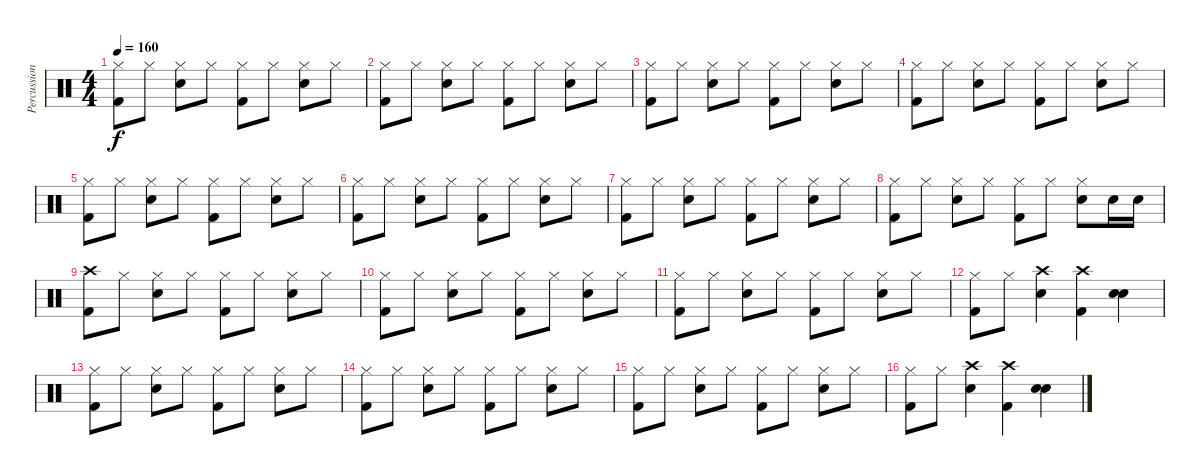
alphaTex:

\track ("Percussion" "Percussion") {instrument percussion}
\staff {score}
\articulation defaults
\ts (4 4)
\tempo 160
\clef neutral
\ks c
("Hi-Hat (closed)" "Kick (hit) 2").8{dy f} "Hi-Hat (closed)".8 ("Hi-Hat (closed)" "Snare (hit) 2").8 "Hi-Hat (closed)".8 ("Hi-Hat (closed)" "Kick (hit) 2").8 "Hi-Hat (closed)".8 ("Hi-Hat (closed)" "Snare (hit) 2").8 "Hi-Hat (closed)".8 |
("Hi-Hat (closed)" "Kick (hit) 2").8 "Hi-Hat (closed)".8 ("Hi-Hat (closed)" "Snare (hit) 2").8 "Hi-Hat (closed)".8 ("Hi-Hat (closed)" "Kick (hit) 2").8 "Hi-Hat (closed)".8 ("Hi-Hat (closed)" "Snare (hit) 2").8 "Hi-Hat (closed)".8 |
("Hi-Hat (closed)" "Kick (hit) 2").8 "Hi-Hat (closed)".8 ("Hi-Hat (closed)" "Snare (hit) 2").8 "Hi-Hat (closed)".8 ("Hi-Hat (closed)" "Kick (hit) 2").8 "Hi-Hat (closed)".8 ("Hi-Hat (closed)" "Snare (hit) 2").8 "Hi-Hat (closed)".8 |
("Hi-Hat (closed)" "Kick (hit) 2").8 "Hi-Hat (closed)".8 ("Hi-Hat (closed)" "Snare (hit) 2").8 "Hi-Hat (closed)".8 ("Hi-Hat (closed)" "Kick (hit) 2").8 "Hi-Hat (closed)".8 ("Hi-Hat (closed)" "Snare (hit) 2").8 "Hi-Hat (closed)".8 |
("Hi-Hat (closed)" "Kick (hit) 2").8 "Hi-Hat (closed)".8 ("Hi-Hat (closed)" "Snare (hit) 2").8 "Hi-Hat (closed)".8 ("Hi-Hat (closed)" "Kick (hit) 2").8 "Hi-Hat (closed)".8 ("Hi-Hat (closed)" "Snare (hit) 2").8 "Hi-Hat (closed)".8 |
("Hi-Hat (closed)" "Kick (hit) 2").8 "Hi-Hat (closed)".8 ("Hi-Hat (closed)" "Snare (hit) 2").8 "Hi-Hat (closed)".8 ("Hi-Hat (closed)" "Kick (hit) 2").8 "Hi-Hat (closed)".8 ("Hi-Hat (closed)" "Snare (hit) 2").8 "Hi-Hat (closed)".8 |
("Hi-Hat (closed)" "Kick (hit) 2").8 "Hi-Hat (closed)".8 ("Hi-Hat (closed)" "Snare (hit) 2").8 "Hi-Hat (closed)".8 ("Hi-Hat (closed)" "Kick (hit) 2").8 "Hi-Hat (closed)".8 ("Hi-Hat (closed)" "Snare (hit) 2").8 "Hi-Hat (closed)".8 |
("Hi-Hat (closed)" "Kick (hit) 2").8 "Hi-Hat (closed)".8 ("Hi-Hat (closed)" "Snare (hit) 2").8 "Hi-Hat (closed)".8 ("Hi-Hat (closed)" "Kick (hit) 2").8 "Hi-Hat (closed)".8 ("Hi-Hat (closed)" "Snare (hit) 2").8 "Snare (hit) 2".16 "Snare (hit) 2".16 |
("Crash high (hit)" "Kick (hit) 2").8 "Hi-Hat (closed)".8 ("Hi-Hat (closed)" "Snare (hit) 2").8 "Hi-Hat (closed)".8 ("Hi-Hat (closed)" "Kick (hit) 2").8 "Hi-Hat (closed)".8 ("Hi-Hat (closed)" "Snare (hit) 2").8 "Hi-Hat (closed)".8 |
("Hi-Hat (closed)" "Kick (hit) 2").8 "Hi-Hat (closed)".8 ("Hi-Hat (closed)" "Snare (hit) 2").8 "Hi-Hat (closed)".8 ("Hi-Hat (closed)" "Kick (hit) 2").8 "Hi-Hat (closed)".8 ("Hi-Hat (closed)" "Snare (hit) 2").8 "Hi-Hat (closed)".8 |
("Hi-Hat (closed)" "Kick (hit) 2").8 "Hi-Hat (closed)".8 ("Hi-Hat (closed)" "Snare (hit) 2").8 "Hi-Hat (closed)".8 ("Hi-Hat (closed)" "Kick (hit) 2").8 "Hi-Hat (closed)".8 ("Hi-Hat (closed)" "Snare (hit) 2").8 "Hi-Hat (closed)".8 |
("Hi-Hat (closed)" "Kick (hit) 2").8 "Hi-Hat (closed)".8 ("Crash high (hit)" "Snare (hit) 2").4 ("Crash high (hit)" "Kick (hit) 2").4 ("Snare (hit) 2" "Snare (hit) 2").4 |
("Hi-Hat (closed)" "Kick (hit) 2").8 "Hi-Hat (closed)".8 ("Hi-Hat (closed)" "Snare (hit) 2").8 "Hi-Hat (closed)".8 ("Hi-Hat (closed)" "Kick (hit) 2").8 "Hi-Hat (closed)".8 ("Hi-Hat (closed)" "Snare (hit) 2").8 "Hi-Hat (closed)".8 |
("Hi-Hat (closed)" "Kick (hit) 2").8 "Hi-Hat (closed)".8 ("Hi-Hat (closed)" "Snare (hit) 2").8 "Hi-Hat (closed)".8 ("Hi-Hat (closed)" "Kick (hit) 2").8 "Hi-Hat (closed)".8 ("Hi-Hat (closed)" "Snare (hit) 2").8 "Hi-Hat (closed)".8 |
("Hi-Hat (closed)" "Kick (hit) 2").8 "Hi-Hat (closed)".8 ("Hi-Hat (closed)" "Snare (hit) 2").8 "Hi-Hat (closed)".8 ("Hi-Hat (closed)" "Kick (hit) 2").8 "Hi-Hat (closed)".8 ("Hi-Hat (closed)" "Snare (hit) 2").8 "Hi-Hat (closed)".8 |
("Hi-Hat (closed)" "Kick (hit) 2").8 "Hi-Hat (closed)".8 ("Crash high (hit)" "Snare (hit) 2").4 ("Crash high (hit)" "Kick (hit) 2").4 ("Snare (hit) 2" "Snare (hit) 2").4
